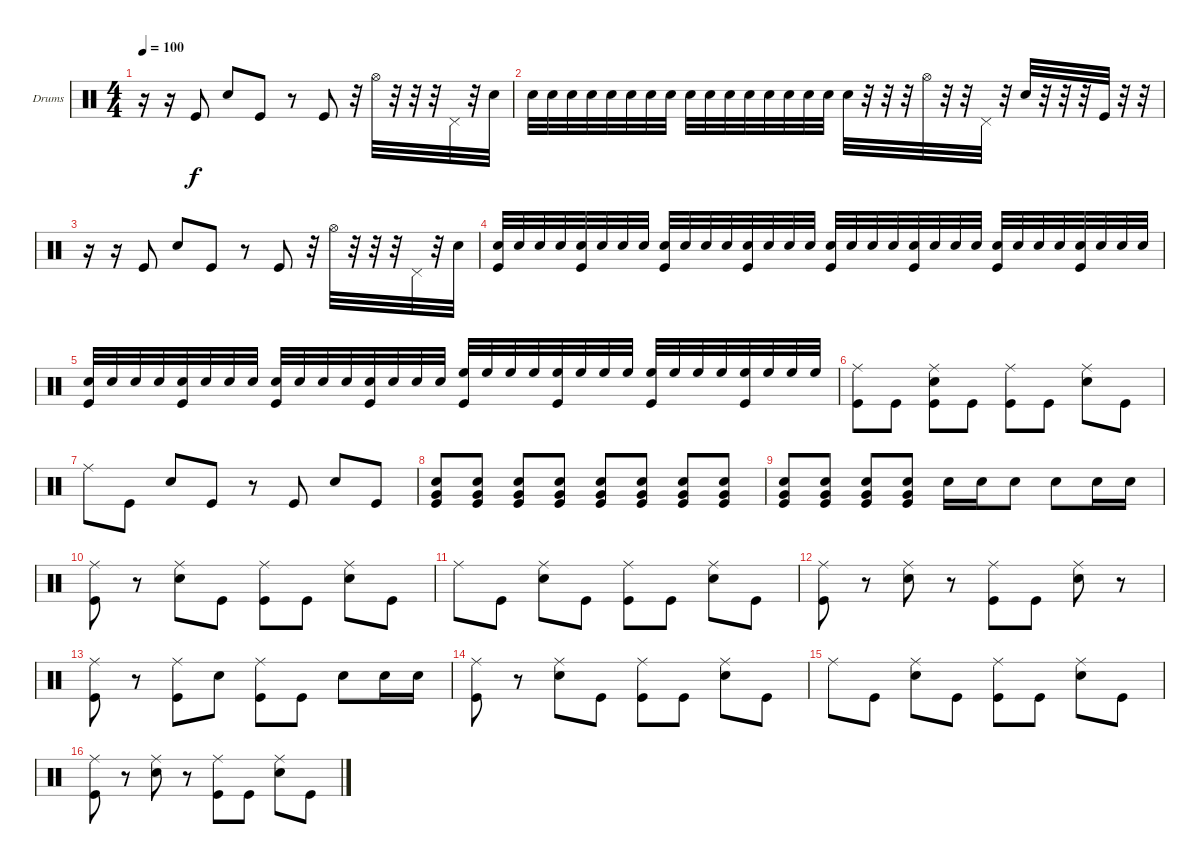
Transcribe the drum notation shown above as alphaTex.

\bracketExtendMode groupsimilarinstruments
\firstSystemTrackNameOrientation horizontal
\otherSystemsTrackNameOrientation horizontal
\track ("Drumkit" "Drums") {instrument percussion}
\staff {score}
\articulation defaults
\ts (4 4)
\tempo 100
\clef neutral
\ks c
r.16{dy f} r.16 "Kick (hit)".8 "Snare (hit) 2".8 "Kick (hit)".8 r.8 "Kick (hit)".8 r.32 "Hi-Hat (open)".32 r.32 r.32 r.32 "Pedal Hi-Hat (hit)".32 r.32 "Snare (hit) 2".32 |
"Snare (hit) 2".32 "Snare (hit) 2".32 "Snare (hit) 2".32 "Snare (hit) 2".32 "Snare (hit) 2".32 "Snare (hit) 2".32 "Snare (hit) 2".32 "Snare (hit) 2".32 "Snare (hit) 2".32 "Snare (hit) 2".32 "Snare (hit) 2".32 "Snare (hit) 2".32 "Snare (hit) 2".32 "Snare (hit) 2".32 "Snare (hit) 2".32 "Snare (hit) 2".32 "Snare (hit) 2".32 r.32 r.32 r.32 "Hi-Hat (open)".32 r.32 r.32 "Pedal Hi-Hat (hit)".32 r.32 "Snare (hit) 2".32 r.32 r.32 r.32 "Kick (hit)".32 r.32 r.32 |
r.16 r.16 "Kick (hit)".8 "Snare (hit) 2".8 "Kick (hit)".8 r.8 "Kick (hit)".8 r.32 "Hi-Hat (open)".32 r.32 r.32 r.32 "Pedal Hi-Hat (hit)".32 r.32 "Snare (hit) 2".32 |
("Snare (hit) 2" "Kick (hit)").32 "Snare (hit) 2".32 "Snare (hit) 2".32 "Snare (hit) 2".32 ("Snare (hit) 2" "Kick (hit)").32 "Snare (hit) 2".32 "Snare (hit) 2".32 "Snare (hit) 2".32 ("Snare (hit) 2" "Kick (hit)").32 "Snare (hit) 2".32 "Snare (hit) 2".32 "Snare (hit) 2".32 ("Snare (hit) 2" "Kick (hit)").32 "Snare (hit) 2".32 "Snare (hit) 2".32 "Snare (hit) 2".32 ("Snare (hit) 2" "Kick (hit)").32 "Snare (hit) 2".32 "Snare (hit) 2".32 "Snare (hit) 2".32 ("Snare (hit) 2" "Kick (hit)").32 "Snare (hit) 2".32 "Snare (hit) 2".32 "Snare (hit) 2".32 ("Snare (hit) 2" "Kick (hit)").32 "Snare (hit) 2".32 "Snare (hit) 2".32 "Snare (hit) 2".32 ("Snare (hit) 2" "Kick (hit)").32 "Snare (hit) 2".32 "Snare (hit) 2".32 "Snare (hit) 2".32 |
("Snare (hit) 2" "Kick (hit)").32 "Snare (hit) 2".32 "Snare (hit) 2".32 "Snare (hit) 2".32 ("Snare (hit) 2" "Kick (hit)").32 "Snare (hit) 2".32 "Snare (hit) 2".32 "Snare (hit) 2".32 ("Snare (hit) 2" "Kick (hit)").32 "Snare (hit) 2".32 "Snare (hit) 2".32 "Snare (hit) 2".32 ("Snare (hit) 2" "Kick (hit)").32 "Snare (hit) 2".32 "Snare (hit) 2".32 "Snare (hit) 2".32 ("High Floor Tom (hit)" "Kick (hit)").32 "High Floor Tom (hit)".32 "High Floor Tom (hit)".32 "High Floor Tom (hit)".32 ("High Floor Tom (hit)" "Kick (hit)").32 "High Floor Tom (hit)".32 "High Floor Tom (hit)".32 "High Floor Tom (hit)".32 ("High Floor Tom (hit)" "Kick (hit)").32 "High Floor Tom (hit)".32 "High Floor Tom (hit)".32 "High Floor Tom (hit)".32 ("High Floor Tom (hit)" "Kick (hit)").32 "High Floor Tom (hit)".32 "High Floor Tom (hit)".32 "High Floor Tom (hit)".32 |
("Kick (hit)" "Ride (middle)").8 "Kick (hit)".8 ("Kick (hit)" "Ride (middle)" "Snare (hit) 2").8 "Kick (hit)".8 ("Kick (hit)" "Ride (middle)").8 "Kick (hit)".8 ("Snare (hit) 2" "Ride (middle)").8 "Kick (hit)".8 |
"Ride (middle)".8 "Kick (hit)".8 "Snare (hit) 2".8 "Kick (hit)".8 r.8 "Kick (hit)".8 "Snare (hit) 2".8 "Kick (hit)".8 |
("Snare (hit) 2" "Very Low Tom (hit)" "Kick (hit)").8 ("Snare (hit) 2" "Very Low Tom (hit)" "Kick (hit)").8 ("Snare (hit) 2" "Very Low Tom (hit)" "Kick (hit)").8 ("Snare (hit) 2" "Very Low Tom (hit)" "Kick (hit)").8 ("Snare (hit) 2" "Very Low Tom (hit)" "Kick (hit)").8 ("Snare (hit) 2" "Very Low Tom (hit)" "Kick (hit)").8 ("Snare (hit) 2" "Very Low Tom (hit)" "Kick (hit)").8 ("Snare (hit) 2" "Very Low Tom (hit)" "Kick (hit)").8 |
("Snare (hit) 2" "Very Low Tom (hit)" "Kick (hit)").8 ("Snare (hit) 2" "Very Low Tom (hit)" "Kick (hit)").8 ("Snare (hit) 2" "Very Low Tom (hit)" "Kick (hit)").8 ("Snare (hit) 2" "Very Low Tom (hit)" "Kick (hit)").8 "Snare (hit) 2".16 "Snare (hit) 2".16 "Snare (hit) 2".8 "Snare (hit) 2".8 "Snare (hit) 2".16 "Snare (hit) 2".16 |
("Kick (hit)" "Ride (middle)").8 r.8 ("Snare (hit) 2" "Ride (middle)").8 "Kick (hit)".8 ("Kick (hit)" "Ride (middle)").8 "Kick (hit)".8 ("Snare (hit) 2" "Ride (middle)").8 "Kick (hit)".8 |
"Ride (middle)".8 "Kick (hit)".8 ("Snare (hit) 2" "Ride (middle)").8 "Kick (hit)".8 ("Kick (hit)" "Ride (middle)").8 "Kick (hit)".8 ("Snare (hit) 2" "Ride (middle)").8 "Kick (hit)".8 |
("Kick (hit)" "Ride (middle)").8 r.8 ("Snare (hit) 2" "Ride (middle)").8 r.8 ("Kick (hit)" "Ride (middle)").8 "Kick (hit)".8 ("Snare (hit) 2" "Ride (middle)").8 r.8 |
("Kick (hit)" "Ride (middle)").8 r.8 ("Kick (hit)" "Ride (middle)").8 "Snare (hit) 2".8 ("Kick (hit)" "Ride (middle)").8 "Kick (hit)".8 "Snare (hit) 2".8 "Snare (hit) 2".16 "Snare (hit) 2".16 |
("Kick (hit)" "Ride (middle)").8 r.8 ("Snare (hit) 2" "Ride (middle)").8 "Kick (hit)".8 ("Kick (hit)" "Ride (middle)").8 "Kick (hit)".8 ("Snare (hit) 2" "Ride (middle)").8 "Kick (hit)".8 |
"Ride (middle)".8 "Kick (hit)".8 ("Snare (hit) 2" "Ride (middle)").8 "Kick (hit)".8 ("Kick (hit)" "Ride (middle)").8 "Kick (hit)".8 ("Snare (hit) 2" "Ride (middle)").8 "Kick (hit)".8 |
("Kick (hit)" "Ride (middle)").8 r.8 ("Snare (hit) 2" "Ride (middle)").8 r.8 ("Kick (hit)" "Ride (middle)").8 "Kick (hit)".8 ("Snare (hit) 2" "Ride (middle)").8 "Kick (hit)".8
